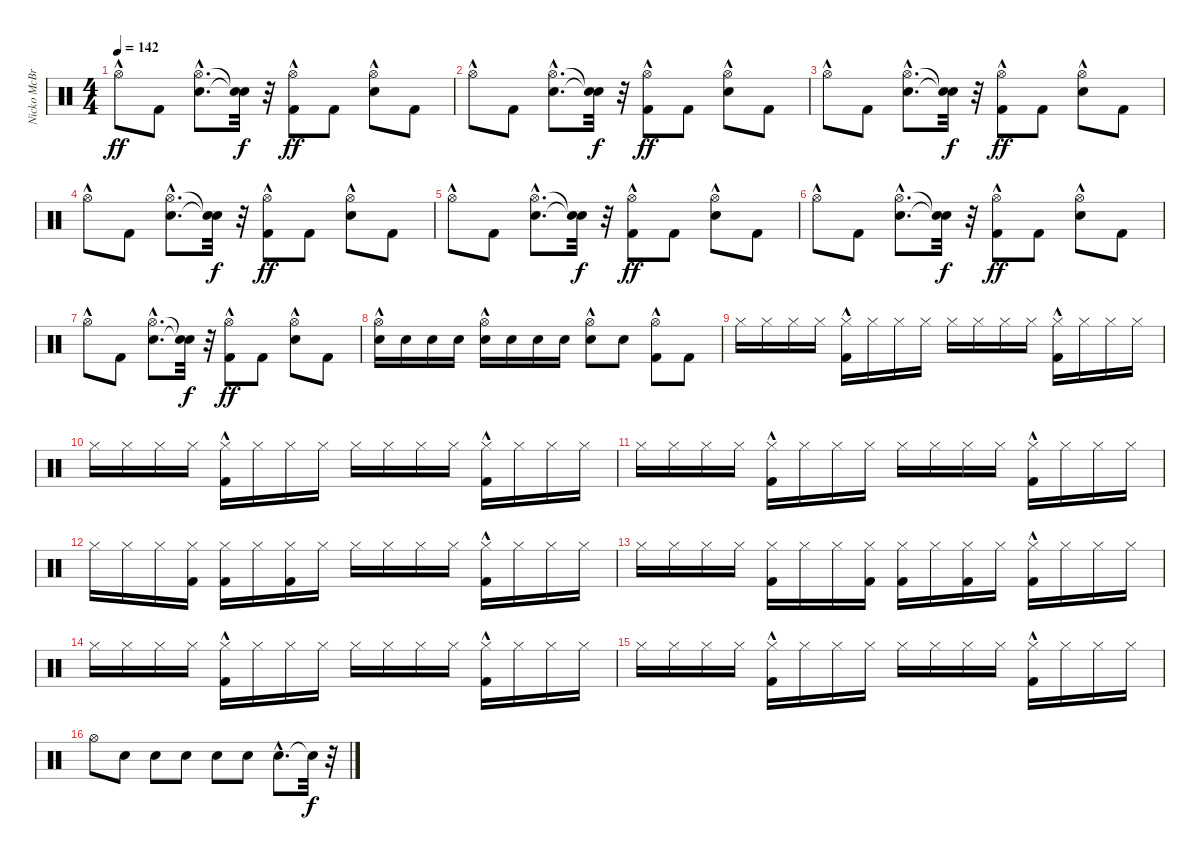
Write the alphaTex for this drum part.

\track ("Nicko McBrain" "Nicko McBr") {instrument percussion}
\staff {score}
\articulation defaults
\ts (4 4)
\tempo 142
\clef neutral
\ks c "Hi-Hat (open)"{hac}.8{dy ff} "Kick (hit) 2".8
("Snare (hit) 2"{hac} "Hi-Hat (open)"{hac}).8{d} ("Snare (hit)"{t} "Snare (hit)"{t}).32{dy f} r.32 ("Kick (hit) 2" "Hi-Hat (open)"{hac}).8{dy ff} "Kick (hit) 2".8 ("Snare (hit) 2" "Hi-Hat (open)"{hac}).8 "Kick (hit) 2".8 |
"Hi-Hat (open)"{hac}.8 "Kick (hit) 2".8 ("Snare (hit) 2"{hac} "Hi-Hat (open)"{hac}).8{d} ("Snare (hit)"{t} "Snare (hit)"{t}).32{dy f} r.32 ("Kick (hit) 2" "Hi-Hat (open)"{hac}).8{dy ff} "Kick (hit) 2".8 ("Snare (hit) 2" "Hi-Hat (open)"{hac}).8 "Kick (hit) 2".8 |
"Hi-Hat (open)"{hac}.8 "Kick (hit) 2".8 ("Snare (hit) 2"{hac} "Hi-Hat (open)"{hac}).8{d} ("Snare (hit)"{t} "Snare (hit)"{t}).32{dy f} r.32 ("Kick (hit) 2" "Hi-Hat (open)"{hac}).8{dy ff} "Kick (hit) 2".8 ("Snare (hit) 2" "Hi-Hat (open)"{hac}).8 "Kick (hit) 2".8 |
"Hi-Hat (open)"{hac}.8 "Kick (hit) 2".8 ("Snare (hit) 2"{hac} "Hi-Hat (open)"{hac}).8{d} ("Snare (hit)"{t} "Snare (hit)"{t}).32{dy f} r.32 ("Kick (hit) 2" "Hi-Hat (open)"{hac}).8{dy ff} "Kick (hit) 2".8 ("Snare (hit) 2" "Hi-Hat (open)"{hac}).8 "Kick (hit) 2".8 |
"Hi-Hat (open)"{hac}.8 "Kick (hit) 2".8 ("Snare (hit) 2"{hac} "Hi-Hat (open)"{hac}).8{d} ("Snare (hit)"{t} "Snare (hit)"{t}).32{dy f} r.32 ("Kick (hit) 2" "Hi-Hat (open)"{hac}).8{dy ff} "Kick (hit) 2".8 ("Snare (hit) 2" "Hi-Hat (open)"{hac}).8 "Kick (hit) 2".8 |
"Hi-Hat (open)"{hac}.8 "Kick (hit) 2".8 ("Snare (hit) 2"{hac} "Hi-Hat (open)"{hac}).8{d} ("Snare (hit)"{t} "Snare (hit)"{t}).32{dy f} r.32 ("Kick (hit) 2" "Hi-Hat (open)"{hac}).8{dy ff} "Kick (hit) 2".8 ("Snare (hit) 2" "Hi-Hat (open)"{hac}).8 "Kick (hit) 2".8 |
"Hi-Hat (open)"{hac}.8 "Kick (hit) 2".8 ("Snare (hit) 2"{hac} "Hi-Hat (open)"{hac}).8{d} ("Snare (hit)"{t} "Snare (hit)"{t}).32{dy f} r.32 ("Kick (hit) 2" "Hi-Hat (open)"{hac}).8{dy ff} "Kick (hit) 2".8 ("Snare (hit) 2" "Hi-Hat (open)"{hac}).8 "Kick (hit) 2".8 |
("Snare (hit) 2" "Hi-Hat (open)"{hac}).16 "Snare (hit) 2".16 "Snare (hit) 2".16 "Snare (hit) 2".16 ("Snare (hit) 2" "Hi-Hat (open)"{hac}).16 "Snare (hit) 2".16 "Snare (hit) 2".16 "Snare (hit) 2".16 ("Snare (hit) 2" "Hi-Hat (open)"{hac}).8 "Snare (hit) 2".8 ("Kick (hit) 2" "Hi-Hat (open)"{hac}).8 "Kick (hit) 2".8 |
"Hi-Hat (closed)".16 "Hi-Hat (closed)".16 "Hi-Hat (closed)".16 "Hi-Hat (closed)".16 ("Kick (hit) 2"{hac} "Hi-Hat (closed)").16 "Hi-Hat (closed)".16 "Hi-Hat (closed)".16 "Hi-Hat (closed)".16 "Hi-Hat (closed)".16 "Hi-Hat (closed)".16 "Hi-Hat (closed)".16 "Hi-Hat (closed)".16 ("Kick (hit) 2"{hac} "Hi-Hat (closed)").16 "Hi-Hat (closed)".16 "Hi-Hat (closed)".16 "Hi-Hat (closed)".16 |
"Hi-Hat (closed)".16 "Hi-Hat (closed)".16 "Hi-Hat (closed)".16 "Hi-Hat (closed)".16 ("Kick (hit) 2"{hac} "Hi-Hat (closed)").16 "Hi-Hat (closed)".16 "Hi-Hat (closed)".16 "Hi-Hat (closed)".16 "Hi-Hat (closed)".16 "Hi-Hat (closed)".16 "Hi-Hat (closed)".16 "Hi-Hat (closed)".16 ("Kick (hit) 2"{hac} "Hi-Hat (closed)").16 "Hi-Hat (closed)".16 "Hi-Hat (closed)".16 "Hi-Hat (closed)".16 |
"Hi-Hat (closed)".16 "Hi-Hat (closed)".16 "Hi-Hat (closed)".16 "Hi-Hat (closed)".16 ("Kick (hit) 2"{hac} "Hi-Hat (closed)").16 "Hi-Hat (closed)".16 "Hi-Hat (closed)".16 "Hi-Hat (closed)".16 "Hi-Hat (closed)".16 "Hi-Hat (closed)".16 "Hi-Hat (closed)".16 "Hi-Hat (closed)".16 ("Kick (hit) 2"{hac} "Hi-Hat (closed)").16 "Hi-Hat (closed)".16 "Hi-Hat (closed)".16 "Hi-Hat (closed)".16 |
"Hi-Hat (closed)".16 "Hi-Hat (closed)".16 "Hi-Hat (closed)".16 ("Kick (hit) 2" "Hi-Hat (closed)").16 ("Kick (hit) 2" "Hi-Hat (closed)").16 "Hi-Hat (closed)".16 ("Kick (hit) 2" "Hi-Hat (closed)").16 "Hi-Hat (closed)".16 "Hi-Hat (closed)".16 "Hi-Hat (closed)".16 "Hi-Hat (closed)".16 "Hi-Hat (closed)".16 ("Kick (hit) 2"{hac} "Hi-Hat (closed)").16 "Hi-Hat (closed)".16 "Hi-Hat (closed)".16 "Hi-Hat (closed)".16 |
"Hi-Hat (closed)".16 "Hi-Hat (closed)".16 "Hi-Hat (closed)".16 "Hi-Hat (closed)".16 ("Kick (hit) 2" "Hi-Hat (closed)").16 "Hi-Hat (closed)".16 "Hi-Hat (closed)".16 ("Kick (hit) 2" "Hi-Hat (closed)").16 ("Kick (hit) 2" "Hi-Hat (closed)").16 "Hi-Hat (closed)".16 ("Kick (hit) 2" "Hi-Hat (closed)").16 "Hi-Hat (closed)".16 ("Kick (hit) 2"{hac} "Hi-Hat (closed)").16 "Hi-Hat (closed)".16 "Hi-Hat (closed)".16 "Hi-Hat (closed)".16 |
"Hi-Hat (closed)".16 "Hi-Hat (closed)".16 "Hi-Hat (closed)".16 "Hi-Hat (closed)".16 ("Kick (hit) 2"{hac} "Hi-Hat (closed)").16 "Hi-Hat (closed)".16 "Hi-Hat (closed)".16 "Hi-Hat (closed)".16 "Hi-Hat (closed)".16 "Hi-Hat (closed)".16 "Hi-Hat (closed)".16 "Hi-Hat (closed)".16 ("Kick (hit) 2"{hac} "Hi-Hat (closed)").16 "Hi-Hat (closed)".16 "Hi-Hat (closed)".16 "Hi-Hat (closed)".16 |
"Hi-Hat (closed)".16 "Hi-Hat (closed)".16 "Hi-Hat (closed)".16 "Hi-Hat (closed)".16 ("Kick (hit) 2"{hac} "Hi-Hat (closed)").16 "Hi-Hat (closed)".16 "Hi-Hat (closed)".16 "Hi-Hat (closed)".16 "Hi-Hat (closed)".16 "Hi-Hat (closed)".16 "Hi-Hat (closed)".16 "Hi-Hat (closed)".16 ("Kick (hit) 2"{hac} "Hi-Hat (closed)").16 "Hi-Hat (closed)".16 "Hi-Hat (closed)".16 "Hi-Hat (closed)".16 |
"Hi-Hat (open)".8 "Snare (hit) 2".8{volume 0} "Snare (hit) 2".8{volume 4} "Snare (hit) 2".8{volume 8} "Snare (hit) 2".8{volume 12} "Snare (hit) 2".8{volume 16} "Snare (hit) 2"{hac}.8{d} "Snare (hit)"{t}.32{dy f} r.32
